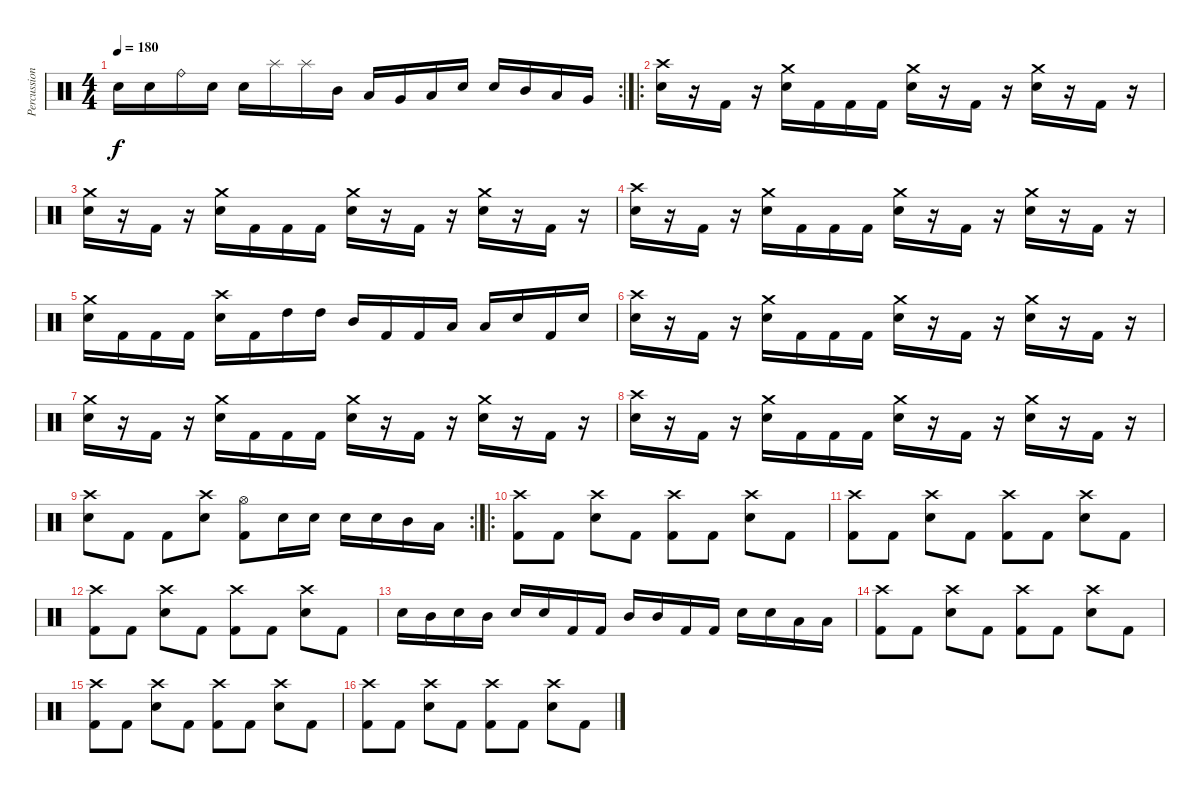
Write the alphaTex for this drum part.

\track ("Percussion" "Percussion") {instrument percussion}
\staff {score}
\articulation defaults
\rc 2
\ts (4 4)
\tempo 180
\clef neutral
\ks c "Electric Snare (hit)".16{dy f} "Electric Snare (hit)".16 "Ride (bell)".16 "Electric Snare (hit)".16 "Electric Snare (hit)".16 "Splash (hit)".16 "Splash (hit)".16 "Mid Tom (hit)".16 "Low Tom (hit)".16 "Very Low Tom (hit)".16 "Low Floor Tom (hit)".16 "Electric Snare (hit)".16 "Electric Snare (hit)".16 "Mid Tom (hit)".16 "Low Tom (hit)".16 "Very Low Tom (hit)".16
|
\ro
("Crash high (hit)" "Electric Snare (hit)").16 r.16 "Kick (hit) 2".16 r.16 ("Crash medium (hit)" "Electric Snare (hit)").16 "Kick (hit) 2".16 "Kick (hit) 2".16 "Kick (hit) 2".16 ("Crash medium (hit)" "Electric Snare (hit)").16 r.16 "Kick (hit) 2".16 r.16 ("Crash medium (hit)" "Electric Snare (hit)").16 r.16 "Kick (hit) 2".16 r.16 |
("Crash medium (hit)" "Electric Snare (hit)").16 r.16 "Kick (hit) 2".16 r.16 ("Crash medium (hit)" "Electric Snare (hit)").16 "Kick (hit) 2".16 "Kick (hit) 2".16 "Kick (hit) 2".16 ("Crash medium (hit)" "Electric Snare (hit)").16 r.16 "Kick (hit) 2".16 r.16 ("Crash medium (hit)" "Electric Snare (hit)").16 r.16 "Kick (hit) 2".16 r.16 |
("Crash high (hit)" "Electric Snare (hit)").16 r.16 "Kick (hit) 2".16 r.16 ("Crash medium (hit)" "Electric Snare (hit)").16 "Kick (hit) 2".16 "Kick (hit) 2".16 "Kick (hit) 2".16 ("Crash medium (hit)" "Electric Snare (hit)").16 r.16 "Kick (hit) 2".16 r.16 ("Crash medium (hit)" "Electric Snare (hit)").16 r.16 "Kick (hit) 2".16 r.16 |
("Crash medium (hit)" "Electric Snare (hit)").16 "Kick (hit) 2".16 "Kick (hit) 2".16 "Kick (hit) 2".16 ("Crash high (hit)" "Electric Snare (hit)").16 "Kick (hit) 2".16 "High Tom (hit)".16 "High Tom (hit)".16 "Mid Tom (hit)".16 "Kick (hit) 2".16 "Kick (hit) 2".16 "Low Tom (hit)".16 "Low Tom (hit)".16 "Electric Snare (hit)".16 "Kick (hit) 2".16 "Electric Snare (hit)".16 |
("Crash high (hit)" "Electric Snare (hit)").16 r.16 "Kick (hit) 2".16 r.16 ("Crash medium (hit)" "Electric Snare (hit)").16 "Kick (hit) 2".16 "Kick (hit) 2".16 "Kick (hit) 2".16 ("Crash medium (hit)" "Electric Snare (hit)").16 r.16 "Kick (hit) 2".16 r.16 ("Crash medium (hit)" "Electric Snare (hit)").16 r.16 "Kick (hit) 2".16 r.16 |
("Crash medium (hit)" "Electric Snare (hit)").16 r.16 "Kick (hit) 2".16 r.16 ("Crash medium (hit)" "Electric Snare (hit)").16 "Kick (hit) 2".16 "Kick (hit) 2".16 "Kick (hit) 2".16 ("Crash medium (hit)" "Electric Snare (hit)").16 r.16 "Kick (hit) 2".16 r.16 ("Crash medium (hit)" "Electric Snare (hit)").16 r.16 "Kick (hit) 2".16 r.16 |
("Crash high (hit)" "Electric Snare (hit)").16 r.16 "Kick (hit) 2".16 r.16 ("Crash medium (hit)" "Electric Snare (hit)").16 "Kick (hit) 2".16 "Kick (hit) 2".16 "Kick (hit) 2".16 ("Crash medium (hit)" "Electric Snare (hit)").16 r.16 "Kick (hit) 2".16 r.16 ("Crash medium (hit)" "Electric Snare (hit)").16 r.16 "Kick (hit) 2".16 r.16 |
\rc 2
("Crash high (hit)" "Electric Snare (hit)").8 "Kick (hit) 2".8 "Kick (hit) 2".8 ("Crash high (hit)" "Electric Snare (hit)").8 ("Hi-Hat (open)" "Kick (hit) 2").8 "Electric Snare (hit)".16 "Electric Snare (hit)".16 "Electric Snare (hit)".16 "Electric Snare (hit)".16 "Mid Tom (hit)".16 "Low Tom (hit)".16 |
\ro
("Crash high (hit)" "Kick (hit) 2").8 "Kick (hit) 2".8 ("Crash high (hit)" "Electric Snare (hit)").8 "Kick (hit) 2".8 ("Crash high (hit)" "Kick (hit) 2").8 "Kick (hit) 2".8 ("Crash high (hit)" "Electric Snare (hit)").8 "Kick (hit) 2".8 |
("Crash high (hit)" "Kick (hit) 2").8 "Kick (hit) 2".8 ("Crash high (hit)" "Electric Snare (hit)").8 "Kick (hit) 2".8 ("Crash high (hit)" "Kick (hit) 2").8 "Kick (hit) 2".8 ("Crash high (hit)" "Electric Snare (hit)").8 "Kick (hit) 2".8 |
("Crash high (hit)" "Kick (hit) 2").8 "Kick (hit) 2".8 ("Crash high (hit)" "Electric Snare (hit)").8 "Kick (hit) 2".8 ("Crash high (hit)" "Kick (hit) 2").8 "Kick (hit) 2".8 ("Crash high (hit)" "Electric Snare (hit)").8 "Kick (hit) 2".8 |
"Electric Snare (hit)".16 "Mid Tom (hit)".16 "Electric Snare (hit)".16 "Mid Tom (hit)".16 "Electric Snare (hit)".16 "Electric Snare (hit)".16 "Kick (hit) 2".16 "Kick (hit) 2".16 "Mid Tom (hit)".16 "Mid Tom (hit)".16 "Kick (hit) 2".16 "Kick (hit) 2".16 "Electric Snare (hit)".16 "Electric Snare (hit)".16 "Low Tom (hit)".16 "Low Tom (hit)".16 |
("Crash high (hit)" "Kick (hit) 2").8 "Kick (hit) 2".8 ("Crash high (hit)" "Electric Snare (hit)").8 "Kick (hit) 2".8 ("Crash high (hit)" "Kick (hit) 2").8 "Kick (hit) 2".8 ("Crash high (hit)" "Electric Snare (hit)").8 "Kick (hit) 2".8 |
("Crash high (hit)" "Kick (hit) 2").8 "Kick (hit) 2".8 ("Crash high (hit)" "Electric Snare (hit)").8 "Kick (hit) 2".8 ("Crash high (hit)" "Kick (hit) 2").8 "Kick (hit) 2".8 ("Crash high (hit)" "Electric Snare (hit)").8 "Kick (hit) 2".8 |
("Crash high (hit)" "Kick (hit) 2").8 "Kick (hit) 2".8 ("Crash high (hit)" "Electric Snare (hit)").8 "Kick (hit) 2".8 ("Crash high (hit)" "Kick (hit) 2").8 "Kick (hit) 2".8 ("Crash high (hit)" "Electric Snare (hit)").8 "Kick (hit) 2".8
